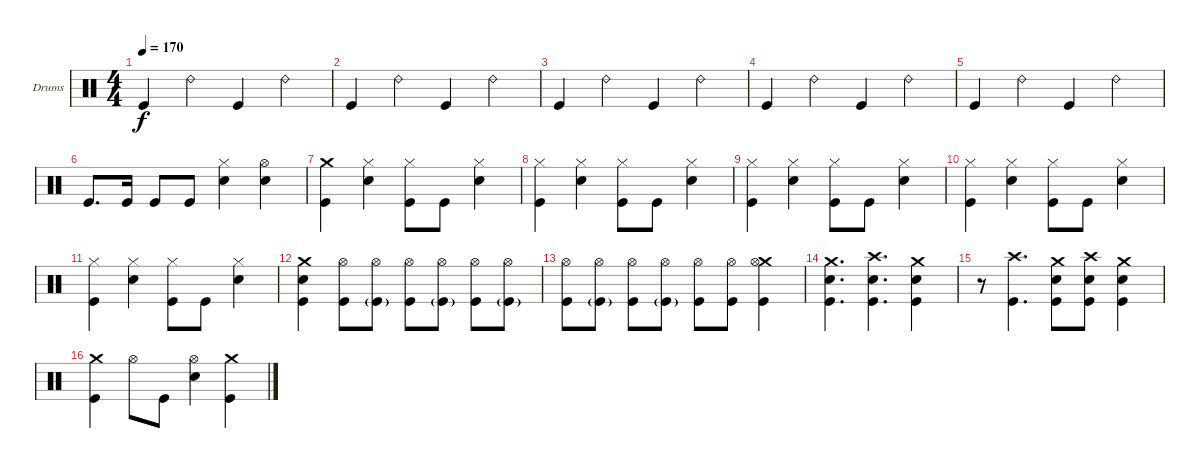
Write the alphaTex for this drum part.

\defaultSystemsLayout 4
\bracketExtendMode groupsimilarinstruments
\firstSystemTrackNameOrientation horizontal
\otherSystemsTrackNameOrientation horizontal
\track ("Drumkit" "Drums") {instrument percussion}
\staff {score}
\articulation defaults
\ts (4 4)
\tempo 170
\clef neutral
\ks c "Kick (hit)".4{dy f} "Ride (bell) 2".4 "Kick (hit)".4 "Ride (bell) 2".4
|
"Kick (hit)".4 "Ride (bell) 2".4 "Kick (hit)".4 "Ride (bell) 2".4 |
"Kick (hit)".4 "Ride (bell) 2".4 "Kick (hit)".4 "Ride (bell) 2".4 |
"Kick (hit)".4 "Ride (bell) 2".4 "Kick (hit)".4 "Ride (bell) 2".4 |
"Kick (hit)".4 "Ride (bell) 2".4 "Kick (hit)".4 "Ride (bell) 2".4 |
"Kick (hit)".8{d} "Kick (hit)".16 "Kick (hit)".8 "Kick (hit)".8 ("Hi-Hat (closed)" "Snare (hit) 2").4 ("Hi-Hat (open)" "Snare (hit) 2").4 |
("Crash medium (hit)" "Kick (hit)").4 ("Hi-Hat (closed)" "Snare (hit) 2").4 ("Hi-Hat (closed)" "Kick (hit)").8 "Kick (hit)".8 ("Hi-Hat (closed)" "Snare (hit) 2").4 |
("Hi-Hat (closed)" "Kick (hit)").4 ("Hi-Hat (closed)" "Snare (hit) 2").4 ("Hi-Hat (closed)" "Kick (hit)").8 "Kick (hit)".8 ("Hi-Hat (closed)" "Snare (hit) 2").4 |
("Hi-Hat (closed)" "Kick (hit)").4 ("Hi-Hat (closed)" "Snare (hit) 2").4 ("Hi-Hat (closed)" "Kick (hit)").8 "Kick (hit)".8 ("Hi-Hat (closed)" "Snare (hit) 2").4 |
("Hi-Hat (closed)" "Kick (hit)").4 ("Hi-Hat (closed)" "Snare (hit) 2").4 ("Hi-Hat (closed)" "Kick (hit)").8 "Kick (hit)".8 ("Hi-Hat (closed)" "Snare (hit) 2").4 |
("Hi-Hat (closed)" "Kick (hit)").4 ("Hi-Hat (closed)" "Snare (hit) 2").4 ("Hi-Hat (closed)" "Kick (hit)").8 "Kick (hit)".8 ("Hi-Hat (closed)" "Snare (hit) 2").4 |
("Crash medium (hit)" "Snare (hit) 2" "Kick (hit)").4 ("Hi-Hat (open)" "Kick (hit)").8 ("Hi-Hat (open)" "Kick (hit)"{g}).8 ("Hi-Hat (open)" "Kick (hit)").8 ("Hi-Hat (open)" "Kick (hit)"{g}).8 ("Hi-Hat (open)" "Kick (hit)").8 ("Hi-Hat (open)" "Kick (hit)"{g}).8 |
("Hi-Hat (open)" "Kick (hit)").8 ("Hi-Hat (open)" "Kick (hit)"{g}).8 ("Hi-Hat (open)" "Kick (hit)").8 ("Hi-Hat (open)" "Kick (hit)"{g}).8 ("Hi-Hat (open)" "Kick (hit)").8 ("Hi-Hat (open)" "Kick (hit)").8 ("Crash medium (hit)" "Hi-Hat (open)" "Kick (hit)").4 |
("Crash medium (hit)" "Snare (hit) 2" "Kick (hit)").4{d} ("Crash high (hit)" "Snare (hit) 2" "Kick (hit)").4{d} ("Crash medium (hit)" "Snare (hit) 2" "Kick (hit)").4 |
r.8 ("Crash high (hit)" "Kick (hit)").4{d} ("Crash medium (hit)" "Snare (hit) 2" "Kick (hit)").8 ("Crash high (hit)" "Snare (hit) 2" "Kick (hit)").8 ("Crash medium (hit)" "Snare (hit) 2" "Kick (hit)").4 |
("Crash medium (hit)" "Kick (hit)").4 "Hi-Hat (open)".8 "Kick (hit)".8 ("Hi-Hat (open)" "Snare (hit) 2").4 ("Crash medium (hit)" "Kick (hit)").4
